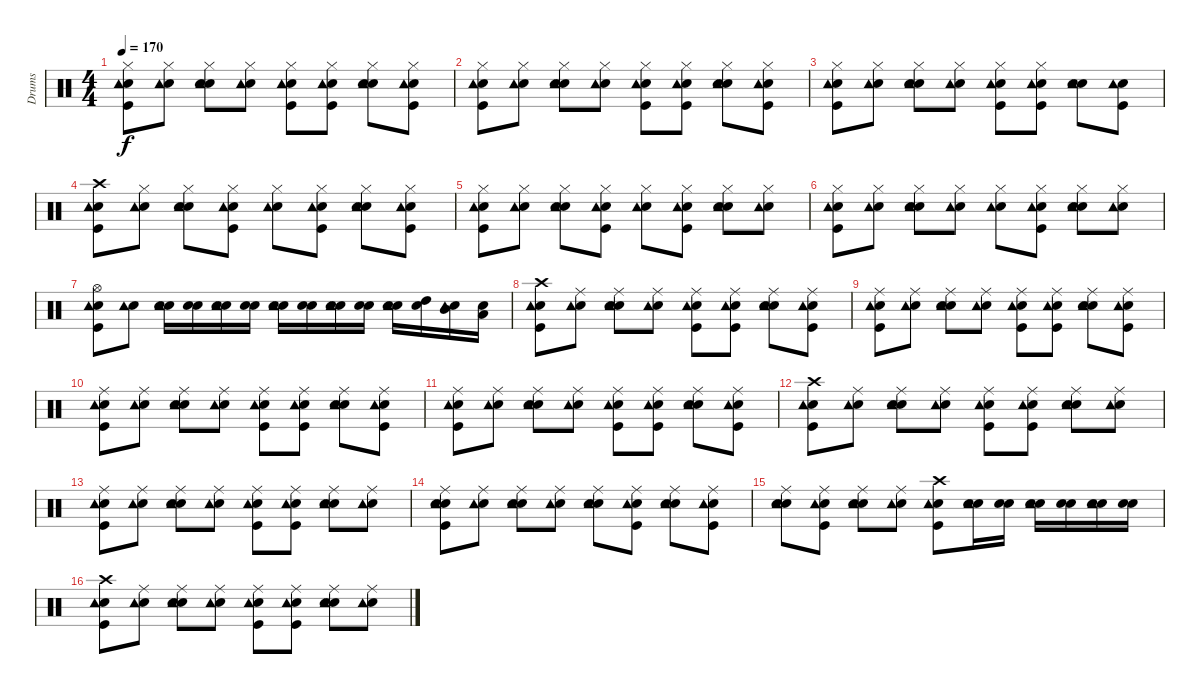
\track ("Drums" "Drums") {instrument percussion}
\staff {score}
\articulation defaults
\ts (4 4)
\tempo 170
\clef neutral
\ks c
("Snare (hit)" "Kick (hit)" "Hi-Hat (closed)" "Tambourine (hit)").8{dy f} ("Snare (hit)" "Hi-Hat (closed)" "Tambourine (hit)").8 ("Snare (hit)" "Electric Snare (hit)" "Hi-Hat (closed)" "Tambourine (hit)").8 ("Snare (hit)" "Hi-Hat (closed)" "Tambourine (hit)").8 ("Snare (hit)" "Kick (hit)" "Hi-Hat (closed)" "Tambourine (hit)").8 ("Snare (hit)" "Kick (hit)" "Hi-Hat (closed)" "Tambourine (hit)").8 ("Snare (hit)" "Electric Snare (hit)" "Hi-Hat (closed)" "Tambourine (hit)").8 ("Snare (hit)" "Kick (hit)" "Hi-Hat (closed)" "Tambourine (hit)").8 |
("Snare (hit)" "Kick (hit)" "Hi-Hat (closed)" "Tambourine (hit)").8 ("Snare (hit)" "Hi-Hat (closed)" "Tambourine (hit)").8 ("Snare (hit)" "Electric Snare (hit)" "Hi-Hat (closed)" "Tambourine (hit)").8 ("Snare (hit)" "Hi-Hat (closed)" "Tambourine (hit)").8 ("Snare (hit)" "Kick (hit)" "Hi-Hat (closed)" "Tambourine (hit)").8 ("Snare (hit)" "Kick (hit)" "Hi-Hat (closed)" "Tambourine (hit)").8 ("Snare (hit)" "Electric Snare (hit)" "Hi-Hat (closed)" "Tambourine (hit)").8 ("Snare (hit)" "Kick (hit)" "Hi-Hat (closed)" "Tambourine (hit)").8 |
("Snare (hit)" "Kick (hit)" "Hi-Hat (closed)" "Tambourine (hit)").8 ("Snare (hit)" "Hi-Hat (closed)" "Tambourine (hit)").8 ("Snare (hit)" "Electric Snare (hit)" "Hi-Hat (closed)" "Tambourine (hit)").8 ("Snare (hit)" "Hi-Hat (closed)" "Tambourine (hit)").8 ("Snare (hit)" "Kick (hit)" "Hi-Hat (closed)" "Tambourine (hit)").8 ("Snare (hit)" "Kick (hit)" "Hi-Hat (closed)" "Tambourine (hit)").8 ("Snare (hit)" "Electric Snare (hit)" "Tambourine (hit)").8 ("Snare (hit)" "Kick (hit)" "Tambourine (hit)").8 |
("Snare (hit)" "Kick (hit)" "Crash high (hit)" "Tambourine (hit)").8 ("Snare (hit)" "Hi-Hat (closed)" "Tambourine (hit)").8 ("Snare (hit)" "Electric Snare (hit)" "Hi-Hat (closed)" "Tambourine (hit)").8 ("Snare (hit)" "Kick (hit)" "Hi-Hat (closed)" "Tambourine (hit)").8 ("Snare (hit)" "Hi-Hat (closed)" "Tambourine (hit)").8 ("Snare (hit)" "Kick (hit)" "Hi-Hat (closed)" "Tambourine (hit)").8 ("Snare (hit)" "Electric Snare (hit)" "Hi-Hat (closed)" "Tambourine (hit)").8 ("Snare (hit)" "Kick (hit)" "Hi-Hat (closed)" "Tambourine (hit)").8 |
("Snare (hit)" "Kick (hit)" "Hi-Hat (closed)" "Tambourine (hit)").8 ("Snare (hit)" "Hi-Hat (closed)" "Tambourine (hit)").8 ("Snare (hit)" "Electric Snare (hit)" "Hi-Hat (closed)" "Tambourine (hit)").8 ("Snare (hit)" "Kick (hit)" "Hi-Hat (closed)" "Tambourine (hit)").8 ("Snare (hit)" "Hi-Hat (closed)" "Tambourine (hit)").8 ("Snare (hit)" "Kick (hit)" "Hi-Hat (closed)" "Tambourine (hit)").8 ("Snare (hit)" "Electric Snare (hit)" "Hi-Hat (closed)" "Tambourine (hit)").8 ("Snare (hit)" "Hi-Hat (closed)" "Tambourine (hit)").8 |
("Snare (hit)" "Kick (hit)" "Tambourine (hit)" "Hi-Hat (closed)").8 ("Snare (hit)" "Tambourine (hit)" "Hi-Hat (closed)").8 ("Snare (hit)" "Tambourine (hit)" "Electric Snare (hit)" "Hi-Hat (closed)").8 ("Snare (hit)" "Tambourine (hit)" "Hi-Hat (closed)").8 ("Snare (hit)" "Tambourine (hit)" "Hi-Hat (closed)").8 ("Snare (hit)" "Kick (hit)" "Tambourine (hit)" "Hi-Hat (closed)").8 ("Snare (hit)" "Tambourine (hit)" "Electric Snare (hit)" "Hi-Hat (closed)").8 ("Snare (hit)" "Tambourine (hit)" "Hi-Hat (closed)").8 |
("Snare (hit)" "Kick (hit)" "Tambourine (hit)" "Hi-Hat (open)").8 ("Snare (hit)" "Tambourine (hit)").8 ("Snare (hit)" "Tambourine (hit)" "Electric Snare (hit)").16 ("Snare (hit)" "Electric Snare (hit)").16 ("Snare (hit)" "Tambourine (hit)" "Electric Snare (hit)").16 ("Snare (hit)" "Electric Snare (hit)").16 ("Snare (hit)" "Tambourine (hit)" "Electric Snare (hit)").16 ("Snare (hit)" "Electric Snare (hit)").16 ("Snare (hit)" "Tambourine (hit)" "Electric Snare (hit)").16 ("Snare (hit)" "Electric Snare (hit)").16 ("Snare (hit)" "Tambourine (hit)" "Electric Snare (hit)").16 ("Snare (hit)" "High Tom (hit)").16 ("Snare (hit)" "Tambourine (hit)" "Mid Tom (hit)").16 ("Snare (hit)" "Low Tom (hit)").16 |
("Snare (hit)" "Kick (hit)" "Tambourine (hit)" "Crash high (hit)").8 ("Snare (hit)" "Tambourine (hit)" "Ride (middle)").8 ("Snare (hit)" "Tambourine (hit)" "Electric Snare (hit)" "Ride (middle)").8 ("Snare (hit)" "Tambourine (hit)" "Ride (middle)").8 ("Snare (hit)" "Kick (hit)" "Tambourine (hit)" "Ride (middle)").8 ("Snare (hit)" "Kick (hit)" "Tambourine (hit)" "Ride (middle)").8 ("Snare (hit)" "Tambourine (hit)" "Electric Snare (hit)" "Ride (middle)").8 ("Snare (hit)" "Kick (hit)" "Tambourine (hit)" "Ride (middle)").8 |
("Snare (hit)" "Kick (hit)" "Tambourine (hit)" "Ride (middle)").8 ("Snare (hit)" "Tambourine (hit)" "Ride (middle)").8 ("Snare (hit)" "Tambourine (hit)" "Electric Snare (hit)" "Ride (middle)").8 ("Snare (hit)" "Tambourine (hit)" "Ride (middle)").8 ("Snare (hit)" "Kick (hit)" "Tambourine (hit)" "Ride (middle)").8 ("Snare (hit)" "Kick (hit)" "Tambourine (hit)" "Ride (middle)").8 ("Snare (hit)" "Tambourine (hit)" "Electric Snare (hit)" "Ride (middle)").8 ("Snare (hit)" "Kick (hit)" "Tambourine (hit)" "Ride (middle)").8 |
("Snare (hit)" "Kick (hit)" "Tambourine (hit)" "Ride (middle)").8 ("Snare (hit)" "Tambourine (hit)" "Ride (middle)").8 ("Snare (hit)" "Tambourine (hit)" "Electric Snare (hit)" "Ride (middle)").8 ("Snare (hit)" "Tambourine (hit)" "Ride (middle)").8 ("Snare (hit)" "Kick (hit)" "Tambourine (hit)" "Ride (middle)").8 ("Snare (hit)" "Kick (hit)" "Tambourine (hit)" "Ride (middle)").8 ("Snare (hit)" "Tambourine (hit)" "Electric Snare (hit)" "Ride (middle)").8 ("Snare (hit)" "Kick (hit)" "Tambourine (hit)" "Ride (middle)").8 |
("Snare (hit)" "Kick (hit)" "Tambourine (hit)" "Ride (middle)").8 ("Snare (hit)" "Tambourine (hit)" "Ride (middle)").8 ("Snare (hit)" "Tambourine (hit)" "Electric Snare (hit)" "Ride (middle)").8 ("Snare (hit)" "Tambourine (hit)" "Ride (middle)").8 ("Snare (hit)" "Kick (hit)" "Tambourine (hit)" "Ride (middle)").8 ("Snare (hit)" "Kick (hit)" "Tambourine (hit)" "Ride (middle)").8 ("Snare (hit)" "Tambourine (hit)" "Electric Snare (hit)" "Ride (middle)").8 ("Snare (hit)" "Kick (hit)" "Tambourine (hit)" "Ride (middle)").8 |
("Snare (hit)" "Kick (hit)" "Tambourine (hit)" "Crash high (hit)").8 ("Snare (hit)" "Tambourine (hit)" "Ride (middle)").8 ("Snare (hit)" "Tambourine (hit)" "Electric Snare (hit)" "Ride (middle)").8 ("Snare (hit)" "Tambourine (hit)" "Ride (middle)").8 ("Snare (hit)" "Kick (hit)" "Tambourine (hit)" "Ride (middle)").8 ("Snare (hit)" "Kick (hit)" "Tambourine (hit)" "Ride (middle)").8 ("Snare (hit)" "Tambourine (hit)" "Electric Snare (hit)" "Ride (middle)").8 ("Snare (hit)" "Tambourine (hit)" "Ride (middle)").8 |
("Snare (hit)" "Kick (hit)" "Tambourine (hit)" "Ride (middle)").8 ("Snare (hit)" "Tambourine (hit)" "Ride (middle)").8 ("Snare (hit)" "Tambourine (hit)" "Electric Snare (hit)" "Ride (middle)").8 ("Snare (hit)" "Tambourine (hit)" "Ride (middle)").8 ("Snare (hit)" "Kick (hit)" "Tambourine (hit)" "Ride (middle)").8 ("Snare (hit)" "Kick (hit)" "Tambourine (hit)" "Ride (middle)").8 ("Snare (hit)" "Tambourine (hit)" "Electric Snare (hit)" "Ride (middle)").8 ("Snare (hit)" "Tambourine (hit)" "Ride (middle)").8 |
("Snare (hit)" "Kick (hit)" "Tambourine (hit)" "Electric Snare (hit)" "Ride (middle)").8 ("Snare (hit)" "Tambourine (hit)" "Ride (middle)").8 ("Snare (hit)" "Electric Snare (hit)" "Ride (middle)" "Tambourine (hit)").8 ("Snare (hit)" "Ride (middle)" "Tambourine (hit)").8 ("Snare (hit)" "Electric Snare (hit)" "Ride (middle)" "Tambourine (hit)").8 ("Snare (hit)" "Kick (hit)" "Tambourine (hit)" "Ride (middle)").8 ("Snare (hit)" "Tambourine (hit)" "Electric Snare (hit)" "Ride (middle)").8 ("Snare (hit)" "Kick (hit)" "Tambourine (hit)" "Ride (middle)").8 |
("Snare (hit)" "Tambourine (hit)" "Electric Snare (hit)" "Ride (middle)").8 ("Snare (hit)" "Kick (hit)" "Tambourine (hit)" "Ride (middle)").8 ("Snare (hit)" "Tambourine (hit)" "Electric Snare (hit)" "Ride (middle)").8 ("Snare (hit)" "Tambourine (hit)" "Ride (middle)").8 ("Snare (hit)" "Kick (hit)" "Tambourine (hit)" "Crash high (hit)").8 ("Snare (hit)" "Tambourine (hit)" "Electric Snare (hit)").16 ("Snare (hit)" "Electric Snare (hit)").16 ("Snare (hit)" "Tambourine (hit)" "Electric Snare (hit)").16 ("Snare (hit)" "Electric Snare (hit)").16 ("Snare (hit)" "Tambourine (hit)" "Electric Snare (hit)").16 ("Snare (hit)" "Electric Snare (hit)").16 |
("Snare (hit)" "Kick (hit)" "Tambourine (hit)" "Crash high (hit)").8 ("Snare (hit)" "Tambourine (hit)" "Ride (middle)").8 ("Snare (hit)" "Tambourine (hit)" "Electric Snare (hit)" "Ride (middle)").8 ("Snare (hit)" "Tambourine (hit)" "Ride (middle)").8 ("Snare (hit)" "Kick (hit)" "Tambourine (hit)" "Ride (middle)").8 ("Snare (hit)" "Kick (hit)" "Tambourine (hit)" "Ride (middle)").8 ("Snare (hit)" "Tambourine (hit)" "Electric Snare (hit)" "Ride (middle)").8 ("Snare (hit)" "Tambourine (hit)" "Ride (middle)").8
